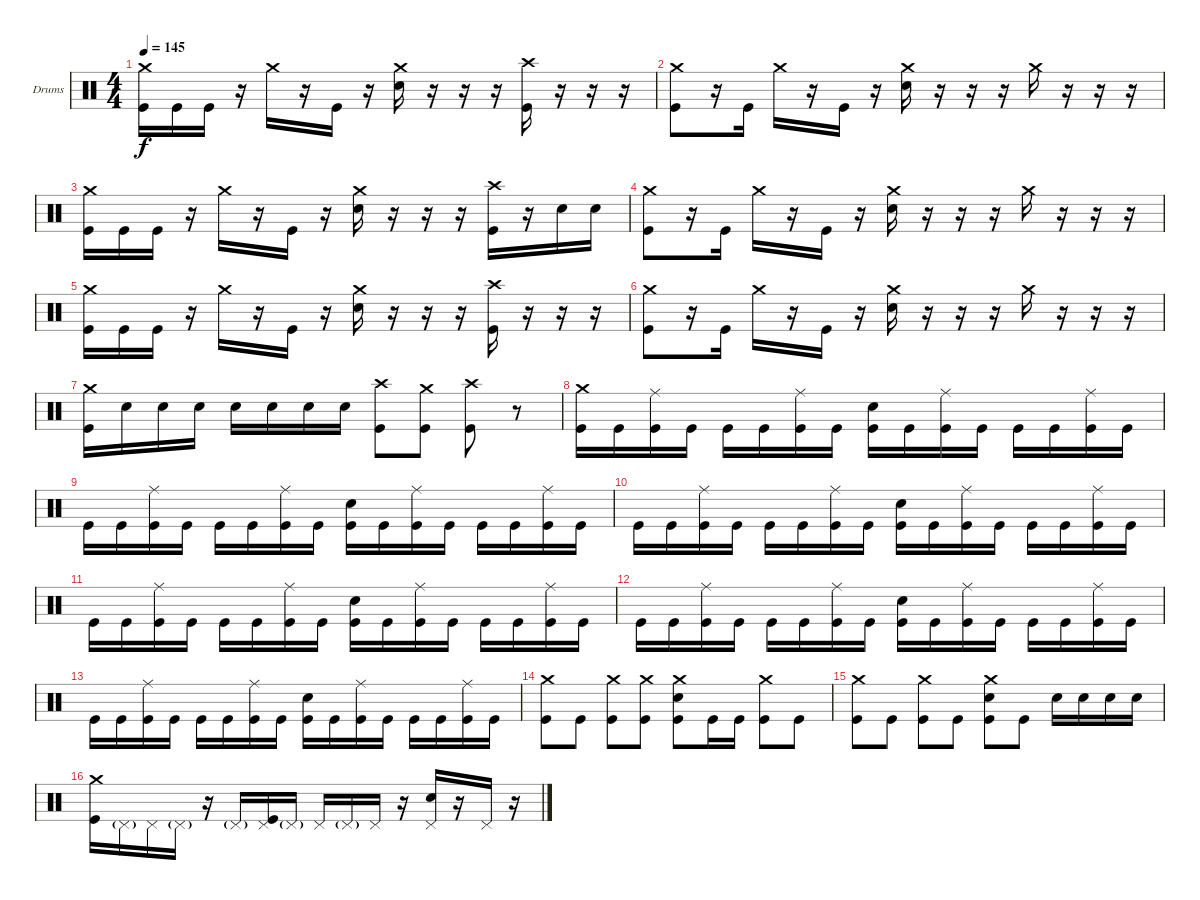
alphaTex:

\defaultSystemsLayout 4
\bracketExtendMode groupsimilarinstruments
\firstSystemTrackNameOrientation horizontal
\otherSystemsTrackNameOrientation horizontal
\track ("Moe Carlson" "Drums") {instrument percussion}
\staff {score}
\articulation defaults
\ts (4 4)
\tempo 145
\clef neutral
\ks c
("Crash medium (hit)" "Kick (hit)").16{dy f} "Kick (hit)".16 "Kick (hit)".16 r.16 "Crash medium (hit)".16 r.16 "Kick (hit)".16 r.16 ("Snare (hit) 2" "Crash medium (hit)").16 r.16 r.16 r.16 ("Crash high (hit)" "Kick (hit)").16 r.16 r.16 r.16 |
("Kick (hit)" "Crash medium (hit)").8 r.16 "Kick (hit)".16 "Crash medium (hit)".16 r.16 "Kick (hit)".16 r.16 ("Snare (hit) 2" "Crash medium (hit)").16 r.16 r.16 r.16 "Crash medium (hit)".16 r.16 r.16 r.16 |
("Crash medium (hit)" "Kick (hit)").16 "Kick (hit)".16 "Kick (hit)".16 r.16 "Crash medium (hit)".16 r.16 "Kick (hit)".16 r.16 ("Snare (hit) 2" "Crash medium (hit)").16 r.16 r.16 r.16 ("Crash high (hit)" "Kick (hit)").16 r.16 "Snare (hit) 2".16 "Snare (hit) 2".16 |
("Kick (hit)" "Crash medium (hit)").8 r.16 "Kick (hit)".16 "Crash medium (hit)".16 r.16 "Kick (hit)".16 r.16 ("Snare (hit) 2" "Crash medium (hit)").16 r.16 r.16 r.16 "Crash medium (hit)".16 r.16 r.16 r.16 |
("Crash medium (hit)" "Kick (hit)").16 "Kick (hit)".16 "Kick (hit)".16 r.16 "Crash medium (hit)".16 r.16 "Kick (hit)".16 r.16 ("Snare (hit) 2" "Crash medium (hit)").16 r.16 r.16 r.16 ("Crash high (hit)" "Kick (hit)").16 r.16 r.16 r.16 |
("Kick (hit)" "Crash medium (hit)").8 r.16 "Kick (hit)".16 "Crash medium (hit)".16 r.16 "Kick (hit)".16 r.16 ("Snare (hit) 2" "Crash medium (hit)").16 r.16 r.16 r.16 "Crash medium (hit)".16 r.16 r.16 r.16 |
("Kick (hit)" "Crash medium (hit)").16 "Snare (hit) 2".16 "Snare (hit) 2".16 "Snare (hit) 2".16 "Snare (hit) 2".16 "Snare (hit) 2".16 "Snare (hit) 2".16 "Snare (hit) 2".16 ("Crash high (hit)" "Kick (hit)").8 ("Crash medium (hit)" "Kick (hit)").8 ("Crash high (hit)" "Kick (hit)").8 r.8 |
("Kick (hit)" "Crash medium (hit)").16 "Kick (hit)".16 ("Kick (hit)" "Ride (middle)").16 "Kick (hit)".16 "Kick (hit)".16 "Kick (hit)".16 ("Kick (hit)" "Ride (middle)").16 "Kick (hit)".16 ("Kick (hit)" "Snare (hit) 2").16 "Kick (hit)".16 ("Kick (hit)" "Ride (middle)").16 "Kick (hit)".16 "Kick (hit)".16 "Kick (hit)".16 ("Kick (hit)" "Ride (middle)").16 "Kick (hit)".16 |
"Kick (hit)".16 "Kick (hit)".16 ("Kick (hit)" "Ride (middle)").16 "Kick (hit)".16 "Kick (hit)".16 "Kick (hit)".16 ("Kick (hit)" "Ride (middle)").16 "Kick (hit)".16 ("Kick (hit)" "Snare (hit) 2").16 "Kick (hit)".16 ("Kick (hit)" "Ride (middle)").16 "Kick (hit)".16 "Kick (hit)".16 "Kick (hit)".16 ("Kick (hit)" "Ride (middle)").16 "Kick (hit)".16 |
"Kick (hit)".16 "Kick (hit)".16 ("Kick (hit)" "Ride (middle)").16 "Kick (hit)".16 "Kick (hit)".16 "Kick (hit)".16 ("Kick (hit)" "Ride (middle)").16 "Kick (hit)".16 ("Kick (hit)" "Snare (hit) 2").16 "Kick (hit)".16 ("Kick (hit)" "Ride (middle)").16 "Kick (hit)".16 "Kick (hit)".16 "Kick (hit)".16 ("Kick (hit)" "Ride (middle)").16 "Kick (hit)".16 |
"Kick (hit)".16 "Kick (hit)".16 ("Kick (hit)" "Ride (middle)").16 "Kick (hit)".16 "Kick (hit)".16 "Kick (hit)".16 ("Kick (hit)" "Ride (middle)").16 "Kick (hit)".16 ("Kick (hit)" "Snare (hit) 2").16 "Kick (hit)".16 ("Kick (hit)" "Ride (middle)").16 "Kick (hit)".16 "Kick (hit)".16 "Kick (hit)".16 ("Kick (hit)" "Ride (middle)").16 "Kick (hit)".16 |
"Kick (hit)".16 "Kick (hit)".16 ("Kick (hit)" "Ride (middle)").16 "Kick (hit)".16 "Kick (hit)".16 "Kick (hit)".16 ("Kick (hit)" "Ride (middle)").16 "Kick (hit)".16 ("Kick (hit)" "Snare (hit) 2").16 "Kick (hit)".16 ("Kick (hit)" "Ride (middle)").16 "Kick (hit)".16 "Kick (hit)".16 "Kick (hit)".16 ("Kick (hit)" "Ride (middle)").16 "Kick (hit)".16 |
"Kick (hit)".16 "Kick (hit)".16 ("Kick (hit)" "Ride (middle)").16 "Kick (hit)".16 "Kick (hit)".16 "Kick (hit)".16 ("Kick (hit)" "Ride (middle)").16 "Kick (hit)".16 ("Kick (hit)" "Snare (hit) 2").16 "Kick (hit)".16 ("Kick (hit)" "Ride (middle)").16 "Kick (hit)".16 "Kick (hit)".16 "Kick (hit)".16 ("Kick (hit)" "Ride (middle)").16 "Kick (hit)".16 |
("Crash medium (hit)" "Kick (hit)").8 "Kick (hit)".8 ("Kick (hit)" "Crash medium (hit)").8 ("Kick (hit)" "Crash medium (hit)").8 ("Crash medium (hit)" "Snare (hit) 2" "Kick (hit)").8 "Kick (hit)".16 "Kick (hit)".16 ("Kick (hit)" "Crash medium (hit)").8 "Kick (hit)".8 |
("Crash medium (hit)" "Kick (hit)").8 "Kick (hit)".8 ("Kick (hit)" "Crash medium (hit)").8 "Kick (hit)".8 ("Kick (hit)" "Crash medium (hit)" "Snare (hit) 2").8 "Kick (hit)".8 "Snare (hit) 2".16 "Snare (hit) 2".16 "Snare (hit) 2".16 "Snare (hit) 2".16 |
("Crash medium (hit)" "Kick (hit)").16 "Pedal Hi-Hat (hit)"{g}.16 "Pedal Hi-Hat (hit)".16 "Pedal Hi-Hat (hit)"{g}.16 r.16 "Pedal Hi-Hat (hit)"{g}.16 ("Pedal Hi-Hat (hit)" "Kick (hit)").16 "Pedal Hi-Hat (hit)"{g}.16 "Pedal Hi-Hat (hit)".16 "Pedal Hi-Hat (hit)"{g}.16 "Pedal Hi-Hat (hit)".16 r.16 ("Snare (hit) 2" "Pedal Hi-Hat (hit)").16 r.16 "Pedal Hi-Hat (hit)".16 r.16
